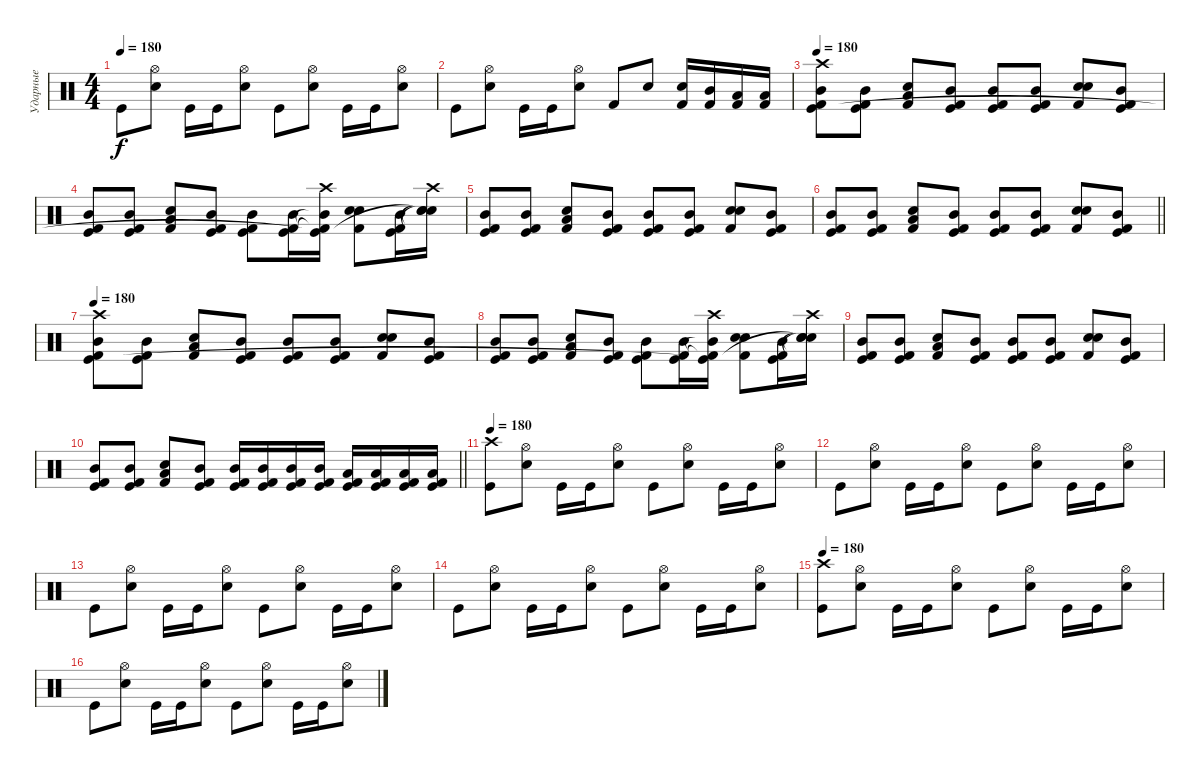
\track ("Ударные" "Ударные") {instrument percussion}
\staff {score}
\articulation defaults
\ts (4 4)
\tempo 180
\clef neutral
\ks c "Kick (hit)".8{dy f}
("Hi-Hat (open)" "Electric Snare (hit)").8 "Kick (hit)".16 "Kick (hit)".16 ("Hi-Hat (open)" "Electric Snare (hit)").8 "Kick (hit)".8 ("Hi-Hat (open)" "Electric Snare (hit)").8 "Kick (hit)".16 "Kick (hit)".16 ("Hi-Hat (open)" "Electric Snare (hit)").8 |
"Kick (hit)".8 ("Hi-Hat (open)" "Electric Snare (hit)").8 "Kick (hit)".16 "Kick (hit)".16 ("Hi-Hat (open)" "Electric Snare (hit)").8 "Kick (hit) 2".8 "Electric Snare (hit)".8 ("Electric Snare (hit)" "Kick (hit) 2").16 ("Mid Tom (hit)" "Kick (hit) 2").16 ("Low Tom (hit)" "Kick (hit) 2").16 ("Low Tom (hit)" "Kick (hit) 2").16 |
\tempo 180
("Crash high (hit)" "Mid Tom (hit)" "Kick (hit) 2" "Kick (hit)").8 ("Mid Tom (hit)" "Kick (hit) 2" "Kick (hit)").8 ("Low Tom (hit)" "Electric Snare (hit)" "Kick (hit) 2").8 ("Mid Tom (hit)" "Kick (hit) 2" "Kick (hit)").8 ("Mid Tom (hit)" "Kick (hit) 2" "Kick (hit)").8 ("Mid Tom (hit)" "Kick (hit) 2" "Kick (hit)").8 ("Electric Snare (hit)" "Electric Snare (hit)" "Kick (hit) 2").8 ("Mid Tom (hit)" "Kick (hit) 2" "Kick (hit)").8 |
("Mid Tom (hit)" "Kick (hit) 2" "Kick (hit)").8 ("Mid Tom (hit)" "Kick (hit) 2" "Kick (hit)").8 ("Low Tom (hit)" "Electric Snare (hit)" "Kick (hit) 2").8 ("Mid Tom (hit)" "Kick (hit) 2" "Kick (hit)").8 ("Mid Tom (hit)" "Kick (hit) 2" "Kick (hit)").8 ("Mid Tom (hit)" "Kick (hit) 2" "Kick (hit)").16 ("Crash high (hit)" "Mid Tom (hit)"{t} "Kick (hit) 2"{t} "Kick (hit)"{t}).16 ("Electric Snare (hit)" "Electric Snare (hit)" "Kick (hit) 2").8 ("Mid Tom (hit)" "Kick (hit) 2" "Kick (hit)").16 ("Crash high (hit)" "Snare (hit)"{t} "Snare (hit)"{t} "Snare (hit)"{t}).16 |
("Mid Tom (hit)" "Kick (hit) 2" "Kick (hit)").8 ("Mid Tom (hit)" "Kick (hit) 2" "Kick (hit)").8 ("Low Tom (hit)" "Electric Snare (hit)" "Kick (hit) 2").8 ("Mid Tom (hit)" "Kick (hit) 2" "Kick (hit)").8 ("Mid Tom (hit)" "Kick (hit) 2" "Kick (hit)").8 ("Mid Tom (hit)" "Kick (hit) 2" "Kick (hit)").8 ("Electric Snare (hit)" "Electric Snare (hit)" "Kick (hit) 2").8 ("Mid Tom (hit)" "Kick (hit) 2" "Kick (hit)").8 |
\barLineRight lightlight
("Mid Tom (hit)" "Kick (hit) 2" "Kick (hit)").8 ("Mid Tom (hit)" "Kick (hit) 2" "Kick (hit)").8 ("Low Tom (hit)" "Electric Snare (hit)" "Kick (hit) 2").8 ("Mid Tom (hit)" "Kick (hit) 2" "Kick (hit)").8 ("Mid Tom (hit)" "Kick (hit) 2" "Kick (hit)").8 ("Mid Tom (hit)" "Kick (hit) 2" "Kick (hit)").8 ("Electric Snare (hit)" "Electric Snare (hit)" "Kick (hit) 2").8 ("Mid Tom (hit)" "Kick (hit) 2" "Kick (hit)").8 |
\tempo 180
("Crash high (hit)" "Mid Tom (hit)" "Kick (hit) 2" "Kick (hit)").8 ("Mid Tom (hit)" "Kick (hit) 2" "Kick (hit)").8 ("Low Tom (hit)" "Electric Snare (hit)" "Kick (hit) 2").8 ("Mid Tom (hit)" "Kick (hit) 2" "Kick (hit)").8 ("Mid Tom (hit)" "Kick (hit) 2" "Kick (hit)").8 ("Mid Tom (hit)" "Kick (hit) 2" "Kick (hit)").8 ("Electric Snare (hit)" "Electric Snare (hit)" "Kick (hit) 2").8 ("Mid Tom (hit)" "Kick (hit) 2" "Kick (hit)").8 |
("Mid Tom (hit)" "Kick (hit) 2" "Kick (hit)").8 ("Mid Tom (hit)" "Kick (hit) 2" "Kick (hit)").8 ("Low Tom (hit)" "Electric Snare (hit)" "Kick (hit) 2").8 ("Mid Tom (hit)" "Kick (hit) 2" "Kick (hit)").8 ("Mid Tom (hit)" "Kick (hit) 2" "Kick (hit)").8 ("Mid Tom (hit)" "Kick (hit) 2" "Kick (hit)").16 ("Crash high (hit)" "Mid Tom (hit)"{t} "Kick (hit) 2"{t} "Kick (hit)"{t}).16 ("Electric Snare (hit)" "Electric Snare (hit)" "Kick (hit) 2").8 ("Mid Tom (hit)" "Kick (hit) 2" "Kick (hit)").16 ("Crash high (hit)" "Snare (hit)"{t} "Snare (hit)"{t} "Snare (hit)"{t}).16 |
("Mid Tom (hit)" "Kick (hit) 2" "Kick (hit)").8 ("Mid Tom (hit)" "Kick (hit) 2" "Kick (hit)").8 ("Low Tom (hit)" "Electric Snare (hit)" "Kick (hit) 2").8 ("Mid Tom (hit)" "Kick (hit) 2" "Kick (hit)").8 ("Mid Tom (hit)" "Kick (hit) 2" "Kick (hit)").8 ("Mid Tom (hit)" "Kick (hit) 2" "Kick (hit)").8 ("Electric Snare (hit)" "Electric Snare (hit)" "Kick (hit) 2").8 ("Mid Tom (hit)" "Kick (hit) 2" "Kick (hit)").8 |
\barLineRight lightlight
("Mid Tom (hit)" "Kick (hit) 2" "Kick (hit)").8 ("Mid Tom (hit)" "Kick (hit) 2" "Kick (hit)").8 ("Low Tom (hit)" "Electric Snare (hit)" "Kick (hit) 2").8 ("Mid Tom (hit)" "Kick (hit) 2" "Kick (hit)").8 ("Mid Tom (hit)" "Kick (hit) 2" "Kick (hit)").16 ("Mid Tom (hit)" "Kick (hit) 2" "Kick (hit)").16 ("Mid Tom (hit)" "Kick (hit) 2" "Kick (hit)").16 ("Mid Tom (hit)" "Kick (hit) 2" "Kick (hit)").16 ("Low Tom (hit)" "Kick (hit) 2" "Kick (hit)").16 ("Low Tom (hit)" "Kick (hit) 2" "Kick (hit)").16 ("Low Tom (hit)" "Kick (hit) 2" "Kick (hit)").16 ("Low Tom (hit)" "Kick (hit) 2" "Kick (hit)").16 |
\tempo 180
("Crash high (hit)" "Kick (hit)").8 ("Hi-Hat (open)" "Electric Snare (hit)").8 "Kick (hit)".16 "Kick (hit)".16 ("Hi-Hat (open)" "Electric Snare (hit)").8 "Kick (hit)".8 ("Hi-Hat (open)" "Electric Snare (hit)").8 "Kick (hit)".16 "Kick (hit)".16 ("Hi-Hat (open)" "Electric Snare (hit)").8 |
"Kick (hit)".8 ("Hi-Hat (open)" "Electric Snare (hit)").8 "Kick (hit)".16 "Kick (hit)".16 ("Hi-Hat (open)" "Electric Snare (hit)").8 "Kick (hit)".8 ("Hi-Hat (open)" "Electric Snare (hit)").8 "Kick (hit)".16 "Kick (hit)".16 ("Hi-Hat (open)" "Electric Snare (hit)").8 |
"Kick (hit)".8 ("Hi-Hat (open)" "Electric Snare (hit)").8 "Kick (hit)".16 "Kick (hit)".16 ("Hi-Hat (open)" "Electric Snare (hit)").8 "Kick (hit)".8 ("Hi-Hat (open)" "Electric Snare (hit)").8 "Kick (hit)".16 "Kick (hit)".16 ("Hi-Hat (open)" "Electric Snare (hit)").8 |
"Kick (hit)".8 ("Hi-Hat (open)" "Electric Snare (hit)").8 "Kick (hit)".16 "Kick (hit)".16 ("Hi-Hat (open)" "Electric Snare (hit)").8 "Kick (hit)".8 ("Hi-Hat (open)" "Electric Snare (hit)").8 "Kick (hit)".16 "Kick (hit)".16 ("Hi-Hat (open)" "Electric Snare (hit)").8 |
\tempo 180
("Crash high (hit)" "Kick (hit)").8 ("Hi-Hat (open)" "Electric Snare (hit)").8 "Kick (hit)".16 "Kick (hit)".16 ("Hi-Hat (open)" "Electric Snare (hit)").8 "Kick (hit)".8 ("Hi-Hat (open)" "Electric Snare (hit)").8 "Kick (hit)".16 "Kick (hit)".16 ("Hi-Hat (open)" "Electric Snare (hit)").8 |
"Kick (hit)".8 ("Hi-Hat (open)" "Electric Snare (hit)").8 "Kick (hit)".16 "Kick (hit)".16 ("Hi-Hat (open)" "Electric Snare (hit)").8 "Kick (hit)".8 ("Hi-Hat (open)" "Electric Snare (hit)").8 "Kick (hit)".16 "Kick (hit)".16 ("Hi-Hat (open)" "Electric Snare (hit)").8
